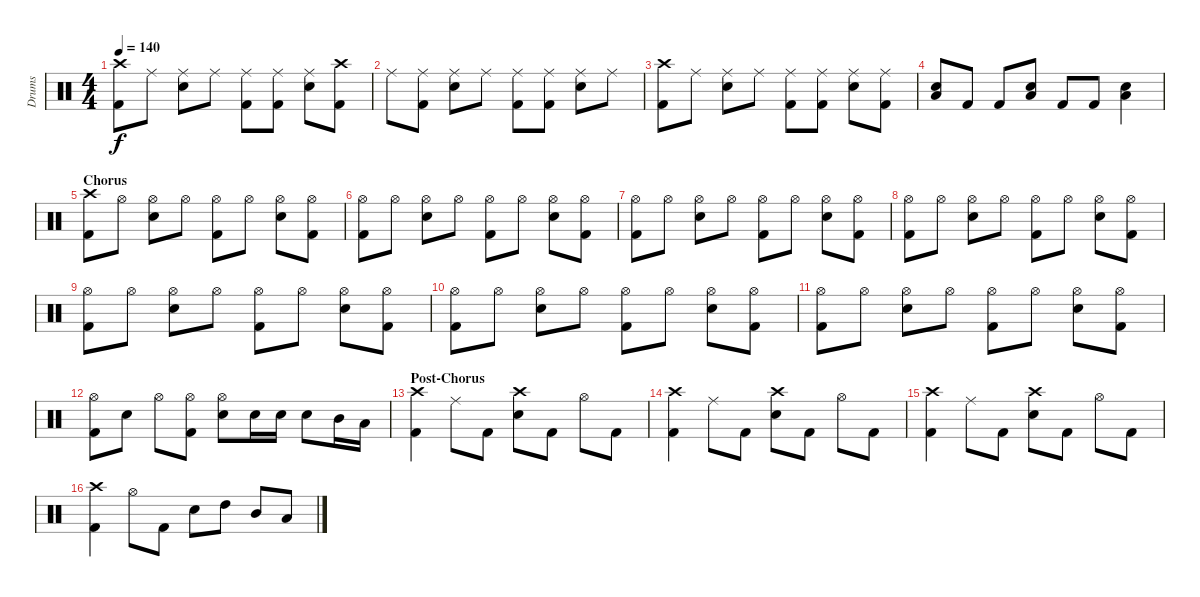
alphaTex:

\track ("Drums" "Drums") {instrument percussion}
\staff {score}
\articulation defaults
\ts (4 4)
\tempo 140
\clef neutral
\ks c
("Crash high (hit)" "Kick (hit) 2").8{dy f} "Ride (middle)".8 ("Ride (middle)" "Electric Snare (hit)").8 "Ride (middle)".8 ("Ride (middle)" "Kick (hit) 2").8 ("Ride (middle)" "Kick (hit) 2").8 ("Ride (middle)" "Electric Snare (hit)").8 ("Crash high (hit)" "Kick (hit) 2").8 |
"Ride (middle)".8 ("Ride (middle)" "Kick (hit) 2").8 ("Ride (middle)" "Electric Snare (hit)").8 "Ride (middle)".8 ("Ride (middle)" "Kick (hit) 2").8 ("Ride (middle)" "Kick (hit) 2").8 ("Ride (middle)" "Electric Snare (hit)").8 "Ride (middle)".8 |
("Crash high (hit)" "Kick (hit) 2").8 "Ride (middle)".8 ("Ride (middle)" "Electric Snare (hit)").8 "Ride (middle)".8 ("Ride (middle)" "Kick (hit) 2").8 ("Ride (middle)" "Kick (hit) 2").8 ("Ride (middle)" "Electric Snare (hit)").8 ("Ride (middle)" "Kick (hit) 2").8 |
("Electric Snare (hit)" "Low Floor Tom (hit)").8 "Kick (hit) 2".8 "Kick (hit) 2".8 ("Electric Snare (hit)" "Low Floor Tom (hit)").8 "Kick (hit) 2".8 "Kick (hit) 2".8 ("Electric Snare (hit)" "Low Floor Tom (hit)").4 |
\section ("" "Chorus")
("Crash high (hit)" "Kick (hit) 2").8 "Hi-Hat (open)".8 ("Hi-Hat (open)" "Electric Snare (hit)").8 "Hi-Hat (open)".8 ("Hi-Hat (open)" "Kick (hit) 2").8 "Hi-Hat (open)".8 ("Hi-Hat (open)" "Electric Snare (hit)").8 ("Hi-Hat (open)" "Kick (hit) 2").8 |
("Hi-Hat (open)" "Kick (hit) 2").8 "Hi-Hat (open)".8 ("Hi-Hat (open)" "Electric Snare (hit)").8 "Hi-Hat (open)".8 ("Hi-Hat (open)" "Kick (hit) 2").8 "Hi-Hat (open)".8 ("Hi-Hat (open)" "Electric Snare (hit)").8 ("Hi-Hat (open)" "Kick (hit) 2").8 |
("Hi-Hat (open)" "Kick (hit) 2").8 "Hi-Hat (open)".8 ("Hi-Hat (open)" "Electric Snare (hit)").8 "Hi-Hat (open)".8 ("Hi-Hat (open)" "Kick (hit) 2").8 "Hi-Hat (open)".8 ("Hi-Hat (open)" "Electric Snare (hit)").8 ("Hi-Hat (open)" "Kick (hit) 2").8 |
("Hi-Hat (open)" "Kick (hit) 2").8 "Hi-Hat (open)".8 ("Hi-Hat (open)" "Electric Snare (hit)").8 "Hi-Hat (open)".8 ("Hi-Hat (open)" "Kick (hit) 2").8 "Hi-Hat (open)".8 ("Hi-Hat (open)" "Electric Snare (hit)").8 ("Hi-Hat (open)" "Kick (hit) 2").8 |
("Hi-Hat (open)" "Kick (hit) 2").8 "Hi-Hat (open)".8 ("Hi-Hat (open)" "Electric Snare (hit)").8 "Hi-Hat (open)".8 ("Hi-Hat (open)" "Kick (hit) 2").8 "Hi-Hat (open)".8 ("Hi-Hat (open)" "Electric Snare (hit)").8 ("Hi-Hat (open)" "Kick (hit) 2").8 |
("Hi-Hat (open)" "Kick (hit) 2").8 "Hi-Hat (open)".8 ("Hi-Hat (open)" "Electric Snare (hit)").8 "Hi-Hat (open)".8 ("Hi-Hat (open)" "Kick (hit) 2").8 "Hi-Hat (open)".8 ("Hi-Hat (open)" "Electric Snare (hit)").8 ("Hi-Hat (open)" "Kick (hit) 2").8 |
("Hi-Hat (open)" "Kick (hit) 2").8 "Hi-Hat (open)".8 ("Hi-Hat (open)" "Electric Snare (hit)").8 "Hi-Hat (open)".8 ("Hi-Hat (open)" "Kick (hit) 2").8 "Hi-Hat (open)".8 ("Hi-Hat (open)" "Electric Snare (hit)").8 ("Hi-Hat (open)" "Kick (hit) 2").8 |
("Hi-Hat (open)" "Kick (hit) 2").8 "Electric Snare (hit)".8 "Hi-Hat (open)".8 ("Hi-Hat (open)" "Kick (hit) 2").8 ("Hi-Hat (open)" "Electric Snare (hit)").8 "Electric Snare (hit)".16 "Electric Snare (hit)".16 "Electric Snare (hit)".8 "Mid Tom (hit)".16 "Low Floor Tom (hit)".16 |
\section ("" "Post-Chorus")
("Crash high (hit)" "Kick (hit) 2").4 "Ride (middle)".8 "Kick (hit) 2".8 ("Crash high (hit)" "Electric Snare (hit)").8 "Kick (hit) 2".8 "Hi-Hat (open)".8 "Kick (hit) 2".8 |
("Crash high (hit)" "Kick (hit) 2").4 "Ride (middle)".8 "Kick (hit) 2".8 ("Crash high (hit)" "Electric Snare (hit)").8 "Kick (hit) 2".8 "Hi-Hat (open)".8 "Kick (hit) 2".8 |
("Crash high (hit)" "Kick (hit) 2").4 "Ride (middle)".8 "Kick (hit) 2".8 ("Crash high (hit)" "Electric Snare (hit)").8 "Kick (hit) 2".8 "Hi-Hat (open)".8 "Kick (hit) 2".8 |
("Crash high (hit)" "Kick (hit) 2").4 "Hi-Hat (open)".8 "Kick (hit) 2".8 "Electric Snare (hit)".8 "High Tom (hit)".8 "Mid Tom (hit)".8 "Low Floor Tom (hit)".8
